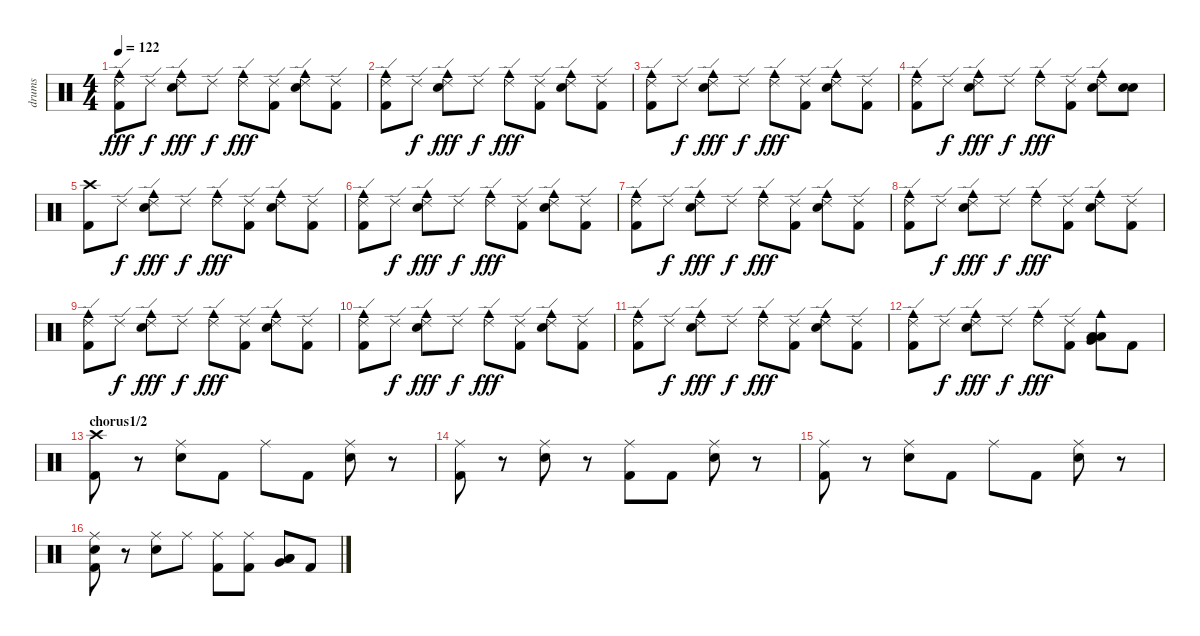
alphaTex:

\track ("drums" "drums") {instrument percussion}
\staff {score}
\articulation defaults
\ts (4 4)
\tempo 122
\clef neutral
\ks c
("Cowbell medium (hit)" "Kick (hit) 2" "Ride (edge) 2").8{dy fff} "Ride (edge) 2".8{dy f} ("Electric Snare (hit)" "Cowbell medium (hit)" "Ride (edge) 2").8{dy fff} "Ride (edge) 2".8{dy f} ("Ride (edge) 2" "Cowbell medium (hit)").8{dy fff} ("Ride (edge) 2" "Kick (hit) 2").8 ("Electric Snare (hit)" "Ride (edge) 2" "Cowbell medium (hit)").8 ("Ride (edge) 2" "Kick (hit) 2").8 |
("Ride (edge) 2" "Kick (hit) 2" "Cowbell medium (hit)").8 "Ride (edge) 2".8{dy f} ("Ride (edge) 2" "Electric Snare (hit)" "Cowbell medium (hit)").8{dy fff} "Ride (edge) 2".8{dy f} ("Ride (edge) 2" "Cowbell medium (hit)").8{dy fff} ("Ride (edge) 2" "Kick (hit) 2").8 ("Ride (edge) 2" "Cowbell medium (hit)" "Electric Snare (hit)").8 ("Kick (hit) 2" "Ride (edge) 2").8 |
("Cowbell medium (hit)" "Ride (edge) 2" "Kick (hit) 2").8 "Ride (edge) 2".8{dy f} ("Electric Snare (hit)" "Ride (edge) 2" "Cowbell medium (hit)").8{dy fff} "Ride (edge) 2".8{dy f} ("Ride (edge) 2" "Cowbell medium (hit)").8{dy fff} ("Kick (hit) 2" "Ride (edge) 2").8 ("Electric Snare (hit)" "Ride (edge) 2" "Cowbell medium (hit)").8 ("Kick (hit) 2" "Ride (edge) 2").8 |
("Ride (edge) 2" "Cowbell medium (hit)" "Kick (hit) 2").8 "Ride (edge) 2".8{dy f} ("Electric Snare (hit)" "Ride (edge) 2" "Cowbell medium (hit)").8{dy fff} "Ride (edge) 2".8{dy f} ("Cowbell medium (hit)" "Ride (edge) 2").8{dy fff} ("Kick (hit) 2" "Ride (edge) 2").8 ("Ride (edge) 2" "Electric Snare (hit)" "Cowbell medium (hit)").8 ("Electric Snare (hit)" "Electric Snare (hit)").8 |
("Kick (hit) 2" "Crash high (hit)").8 "Ride (edge) 2".8{dy f} ("Ride (edge) 2" "Cowbell medium (hit)" "Electric Snare (hit)").8{dy fff} "Ride (edge) 2".8{dy f} ("Ride (edge) 2" "Cowbell medium (hit)").8{dy fff} ("Ride (edge) 2" "Kick (hit) 2").8 ("Ride (edge) 2" "Cowbell medium (hit)" "Electric Snare (hit)").8 ("Ride (edge) 2" "Kick (hit) 2").8 |
("Ride (edge) 2" "Kick (hit) 2" "Cowbell medium (hit)").8 "Ride (edge) 2".8{dy f} ("Ride (edge) 2" "Electric Snare (hit)" "Cowbell medium (hit)").8{dy fff} "Ride (edge) 2".8{dy f} ("Ride (edge) 2" "Cowbell medium (hit)").8{dy fff} ("Kick (hit) 2" "Ride (edge) 2").8 ("Ride (edge) 2" "Cowbell medium (hit)" "Electric Snare (hit)").8 ("Kick (hit) 2" "Ride (edge) 2").8 |
("Ride (edge) 2" "Kick (hit) 2" "Cowbell medium (hit)").8 "Ride (edge) 2".8{dy f} ("Ride (edge) 2" "Electric Snare (hit)" "Cowbell medium (hit)").8{dy fff} "Ride (edge) 2".8{dy f} ("Ride (edge) 2" "Cowbell medium (hit)").8{dy fff} ("Kick (hit) 2" "Ride (edge) 2").8 ("Ride (edge) 2" "Electric Snare (hit)" "Cowbell medium (hit)").8 ("Ride (edge) 2" "Kick (hit) 2").8 |
("Kick (hit) 2" "Cowbell medium (hit)" "Ride (edge) 2").8 "Ride (edge) 2".8{dy f} ("Ride (edge) 2" "Electric Snare (hit)" "Cowbell medium (hit)").8{dy fff} "Ride (edge) 2".8{dy f} ("Cowbell medium (hit)" "Ride (edge) 2").8{dy fff} ("Ride (edge) 2" "Kick (hit) 2").8 ("Cowbell medium (hit)" "Electric Snare (hit)" "Ride (edge) 2").8 ("Ride (edge) 2" "Kick (hit) 2").8 |
("Ride (edge) 2" "Cowbell medium (hit)" "Kick (hit) 2").8 "Ride (edge) 2".8{dy f} ("Ride (edge) 2" "Cowbell medium (hit)" "Electric Snare (hit)").8{dy fff} "Ride (edge) 2".8{dy f} ("Ride (edge) 2" "Cowbell medium (hit)").8{dy fff} ("Kick (hit) 2" "Ride (edge) 2").8 ("Cowbell medium (hit)" "Electric Snare (hit)" "Ride (edge) 2").8 ("Ride (edge) 2" "Kick (hit) 2").8 |
("Cowbell medium (hit)" "Kick (hit) 2" "Ride (edge) 2").8 "Ride (edge) 2".8{dy f} ("Ride (edge) 2" "Cowbell medium (hit)" "Electric Snare (hit)").8{dy fff} "Ride (edge) 2".8{dy f} ("Cowbell medium (hit)" "Ride (edge) 2").8{dy fff} ("Ride (edge) 2" "Kick (hit) 2").8 ("Electric Snare (hit)" "Cowbell medium (hit)" "Ride (edge) 2").8 ("Ride (edge) 2" "Kick (hit) 2").8 |
("Ride (edge) 2" "Kick (hit) 2" "Cowbell medium (hit)").8 "Ride (edge) 2".8{dy f} ("Electric Snare (hit)" "Ride (edge) 2" "Cowbell medium (hit)").8{dy fff} "Ride (edge) 2".8{dy f} ("Cowbell medium (hit)" "Ride (edge) 2").8{dy fff} ("Kick (hit) 2" "Ride (edge) 2").8 ("Ride (edge) 2" "Cowbell medium (hit)" "Electric Snare (hit)").8 ("Kick (hit) 2" "Ride (edge) 2").8 |
("Ride (edge) 2" "Cowbell medium (hit)" "Kick (hit) 2").8 "Ride (edge) 2".8{dy f} ("Cowbell medium (hit)" "Ride (edge) 2" "Electric Snare (hit)").8{dy fff} "Ride (edge) 2".8{dy f} ("Cowbell medium (hit)" "Ride (edge) 2").8{dy fff} ("Kick (hit) 2" "Ride (edge) 2").8 ("Low Tom (hit)" "Cowbell medium (hit)" "Low Tom (hit)" "Very Low Tom (hit)").8 "Kick (hit) 2".8 |
\section ("" "chorus1/2")
("Kick (hit) 2" "Crash high (hit)").8 r.8 ("Ride (middle)" "Electric Snare (hit)").8 "Kick (hit) 2".8 "Ride (middle)".8 "Kick (hit) 2".8 ("Ride (middle)" "Electric Snare (hit)").8 r.8 |
("Ride (middle)" "Kick (hit) 2").8 r.8 ("Electric Snare (hit)" "Ride (middle)").8 r.8 ("Ride (middle)" "Kick (hit) 2").8 "Kick (hit) 2".8 ("Electric Snare (hit)" "Ride (middle)").8 r.8 |
("Ride (middle)" "Kick (hit) 2").8 r.8 ("Ride (middle)" "Electric Snare (hit)").8 "Kick (hit) 2".8 "Ride (middle)".8 "Kick (hit) 2".8 ("Electric Snare (hit)" "Ride (middle)").8 r.8 |
("Electric Snare (hit)" "Kick (hit) 2" "Ride (middle)").8 r.8 ("Electric Snare (hit)" "Ride (middle)").8 "Ride (middle)".8 ("Ride (middle)" "Kick (hit) 2").8 ("Ride (middle)" "Kick (hit) 2").8 ("Low Tom (hit)" "Low Tom (hit)" "Very Low Tom (hit)").8 "Kick (hit) 2".8
